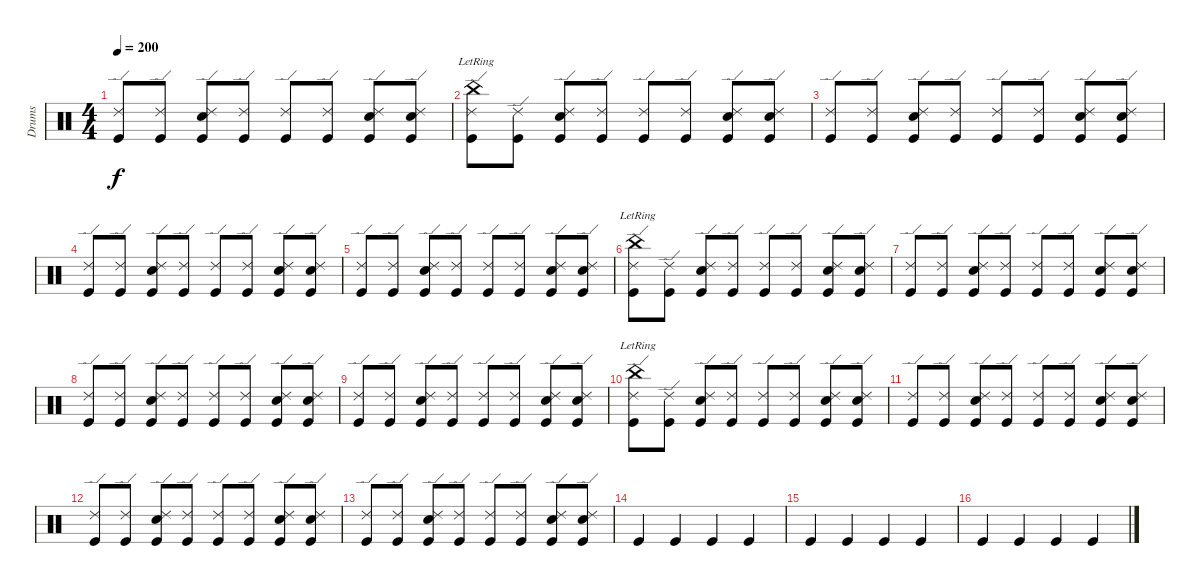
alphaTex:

\track ("Drums" "Drums") {instrument percussion}
\staff {score}
\articulation defaults
\ts (4 4)
\tempo 200
\clef neutral
\ks c
("Kick (hit)" "Ride (edge) 2").8{dy f} ("Kick (hit)" "Ride (edge) 2").8 ("Kick (hit)" "Snare (hit) 2" "Ride (edge) 2").8 ("Kick (hit)" "Ride (edge) 2").8 ("Kick (hit)" "Ride (edge) 2").8 ("Kick (hit)" "Ride (edge) 2").8 ("Kick (hit)" "Snare (hit) 2" "Ride (edge) 2").8 ("Kick (hit)" "Snare (hit) 2" "Ride (edge) 2").8 |
("Kick (hit)" "China (hit)"{lr} "Ride (edge) 2").8 ("Kick (hit)" "Ride (edge) 2").8 ("Kick (hit)" "Snare (hit) 2" "Ride (edge) 2").8 ("Kick (hit)" "Ride (edge) 2").8 ("Kick (hit)" "Ride (edge) 2").8 ("Kick (hit)" "Ride (edge) 2").8 ("Kick (hit)" "Snare (hit) 2" "Ride (edge) 2").8 ("Kick (hit)" "Snare (hit) 2" "Ride (edge) 2").8 |
("Kick (hit)" "Ride (edge) 2").8 ("Kick (hit)" "Ride (edge) 2").8 ("Kick (hit)" "Snare (hit) 2" "Ride (edge) 2").8 ("Kick (hit)" "Ride (edge) 2").8 ("Kick (hit)" "Ride (edge) 2").8 ("Kick (hit)" "Ride (edge) 2").8 ("Kick (hit)" "Snare (hit) 2" "Ride (edge) 2").8 ("Kick (hit)" "Snare (hit) 2" "Ride (edge) 2").8 |
("Kick (hit)" "Ride (edge) 2").8 ("Kick (hit)" "Ride (edge) 2").8 ("Kick (hit)" "Snare (hit) 2" "Ride (edge) 2").8 ("Kick (hit)" "Ride (edge) 2").8 ("Kick (hit)" "Ride (edge) 2").8 ("Kick (hit)" "Ride (edge) 2").8 ("Kick (hit)" "Snare (hit) 2" "Ride (edge) 2").8 ("Kick (hit)" "Snare (hit) 2" "Ride (edge) 2").8 |
("Kick (hit)" "Ride (edge) 2").8 ("Kick (hit)" "Ride (edge) 2").8 ("Kick (hit)" "Snare (hit) 2" "Ride (edge) 2").8 ("Kick (hit)" "Ride (edge) 2").8 ("Kick (hit)" "Ride (edge) 2").8 ("Kick (hit)" "Ride (edge) 2").8 ("Kick (hit)" "Snare (hit) 2" "Ride (edge) 2").8 ("Kick (hit)" "Snare (hit) 2" "Ride (edge) 2").8 |
("Kick (hit)" "China (hit)"{lr} "Ride (edge) 2").8 ("Kick (hit)" "Ride (edge) 2").8 ("Kick (hit)" "Snare (hit) 2" "Ride (edge) 2").8 ("Kick (hit)" "Ride (edge) 2").8 ("Kick (hit)" "Ride (edge) 2").8 ("Kick (hit)" "Ride (edge) 2").8 ("Kick (hit)" "Snare (hit) 2" "Ride (edge) 2").8 ("Kick (hit)" "Snare (hit) 2" "Ride (edge) 2").8 |
("Kick (hit)" "Ride (edge) 2").8 ("Kick (hit)" "Ride (edge) 2").8 ("Kick (hit)" "Snare (hit) 2" "Ride (edge) 2").8 ("Kick (hit)" "Ride (edge) 2").8 ("Kick (hit)" "Ride (edge) 2").8 ("Kick (hit)" "Ride (edge) 2").8 ("Kick (hit)" "Snare (hit) 2" "Ride (edge) 2").8 ("Kick (hit)" "Snare (hit) 2" "Ride (edge) 2").8 |
("Kick (hit)" "Ride (edge) 2").8 ("Kick (hit)" "Ride (edge) 2").8 ("Kick (hit)" "Snare (hit) 2" "Ride (edge) 2").8 ("Kick (hit)" "Ride (edge) 2").8 ("Kick (hit)" "Ride (edge) 2").8 ("Kick (hit)" "Ride (edge) 2").8 ("Kick (hit)" "Snare (hit) 2" "Ride (edge) 2").8 ("Kick (hit)" "Snare (hit) 2" "Ride (edge) 2").8 |
("Kick (hit)" "Ride (edge) 2").8 ("Kick (hit)" "Ride (edge) 2").8 ("Kick (hit)" "Snare (hit) 2" "Ride (edge) 2").8 ("Kick (hit)" "Ride (edge) 2").8 ("Kick (hit)" "Ride (edge) 2").8 ("Kick (hit)" "Ride (edge) 2").8 ("Kick (hit)" "Snare (hit) 2" "Ride (edge) 2").8 ("Kick (hit)" "Snare (hit) 2" "Ride (edge) 2").8 |
("Kick (hit)" "China (hit)"{lr} "Ride (edge) 2").8 ("Kick (hit)" "Ride (edge) 2").8 ("Kick (hit)" "Snare (hit) 2" "Ride (edge) 2").8 ("Kick (hit)" "Ride (edge) 2").8 ("Kick (hit)" "Ride (edge) 2").8 ("Kick (hit)" "Ride (edge) 2").8 ("Kick (hit)" "Snare (hit) 2" "Ride (edge) 2").8 ("Kick (hit)" "Snare (hit) 2" "Ride (edge) 2").8 |
("Kick (hit)" "Ride (edge) 2").8 ("Kick (hit)" "Ride (edge) 2").8 ("Kick (hit)" "Snare (hit) 2" "Ride (edge) 2").8 ("Kick (hit)" "Ride (edge) 2").8 ("Kick (hit)" "Ride (edge) 2").8 ("Kick (hit)" "Ride (edge) 2").8 ("Kick (hit)" "Snare (hit) 2" "Ride (edge) 2").8 ("Kick (hit)" "Snare (hit) 2" "Ride (edge) 2").8 |
("Kick (hit)" "Ride (edge) 2").8 ("Kick (hit)" "Ride (edge) 2").8 ("Kick (hit)" "Snare (hit) 2" "Ride (edge) 2").8 ("Kick (hit)" "Ride (edge) 2").8 ("Kick (hit)" "Ride (edge) 2").8 ("Kick (hit)" "Ride (edge) 2").8 ("Kick (hit)" "Snare (hit) 2" "Ride (edge) 2").8 ("Kick (hit)" "Snare (hit) 2" "Ride (edge) 2").8 |
("Kick (hit)" "Ride (edge) 2").8 ("Kick (hit)" "Ride (edge) 2").8 ("Kick (hit)" "Snare (hit) 2" "Ride (edge) 2").8 ("Kick (hit)" "Ride (edge) 2").8 ("Kick (hit)" "Ride (edge) 2").8 ("Kick (hit)" "Ride (edge) 2").8 ("Kick (hit)" "Snare (hit) 2" "Ride (edge) 2").8 ("Kick (hit)" "Snare (hit) 2" "Ride (edge) 2").8 |
"Kick (hit)".4 "Kick (hit)".4 "Kick (hit)".4 "Kick (hit)".4 |
"Kick (hit)".4 "Kick (hit)".4 "Kick (hit)".4 "Kick (hit)".4 |
"Kick (hit)".4 "Kick (hit)".4 "Kick (hit)".4 "Kick (hit)".4
